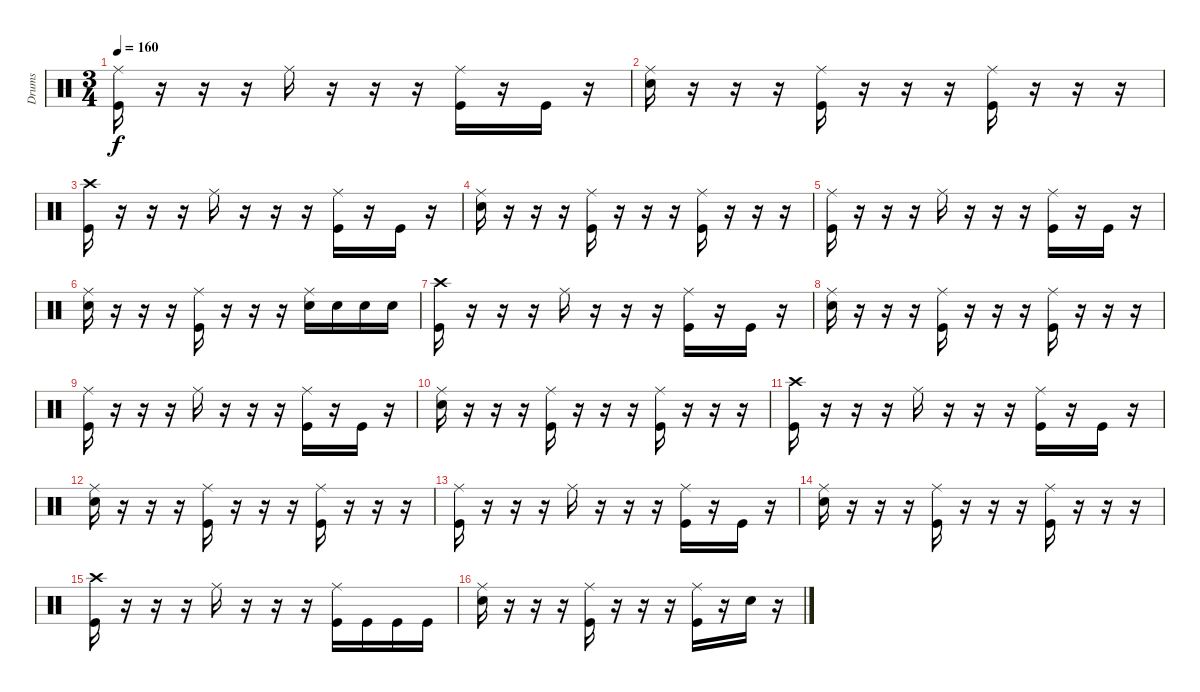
\track ("Drums" "Drums") {instrument percussion}
\staff {score}
\articulation defaults
\ts (3 4)
\tempo 160
\clef neutral
\ks c
("Ride (middle)" "Kick (hit)").16{dy f} r.16 r.16 r.16 "Ride (middle)".16 r.16 r.16 r.16 ("Ride (middle)" "Kick (hit)").16 r.16 "Kick (hit)".16 r.16 |
("Ride (middle)" "Snare (hit) 2").16 r.16 r.16 r.16 ("Ride (middle)" "Kick (hit)").16 r.16 r.16 r.16 ("Ride (middle)" "Kick (hit)").16 r.16 r.16 r.16 |
("Crash high (hit)" "Kick (hit)").16 r.16 r.16 r.16 "Ride (middle)".16 r.16 r.16 r.16 ("Ride (middle)" "Kick (hit)").16 r.16 "Kick (hit)".16 r.16 |
("Ride (middle)" "Snare (hit) 2").16 r.16 r.16 r.16 ("Ride (middle)" "Kick (hit)").16 r.16 r.16 r.16 ("Ride (middle)" "Kick (hit)").16 r.16 r.16 r.16 |
("Ride (middle)" "Kick (hit)").16 r.16 r.16 r.16 "Ride (middle)".16 r.16 r.16 r.16 ("Ride (middle)" "Kick (hit)").16 r.16 "Kick (hit)".16 r.16 |
("Ride (middle)" "Snare (hit) 2").16 r.16 r.16 r.16 ("Ride (middle)" "Kick (hit)").16 r.16 r.16 r.16 ("Ride (middle)" "Snare (hit) 2").16 "Snare (hit) 2".16 "Snare (hit) 2".16 "Snare (hit) 2".16 |
("Crash high (hit)" "Kick (hit)").16 r.16 r.16 r.16 "Ride (middle)".16 r.16 r.16 r.16 ("Ride (middle)" "Kick (hit)").16 r.16 "Kick (hit)".16 r.16 |
("Ride (middle)" "Snare (hit) 2").16 r.16 r.16 r.16 ("Ride (middle)" "Kick (hit)").16 r.16 r.16 r.16 ("Ride (middle)" "Kick (hit)").16 r.16 r.16 r.16 |
("Ride (middle)" "Kick (hit)").16 r.16 r.16 r.16 "Ride (middle)".16 r.16 r.16 r.16 ("Ride (middle)" "Kick (hit)").16 r.16 "Kick (hit)".16 r.16 |
("Ride (middle)" "Snare (hit) 2").16 r.16 r.16 r.16 ("Ride (middle)" "Kick (hit)").16 r.16 r.16 r.16 ("Ride (middle)" "Kick (hit)").16 r.16 r.16 r.16 |
("Crash high (hit)" "Kick (hit)").16 r.16 r.16 r.16 "Ride (middle)".16 r.16 r.16 r.16 ("Ride (middle)" "Kick (hit)").16 r.16 "Kick (hit)".16 r.16 |
("Ride (middle)" "Snare (hit) 2").16 r.16 r.16 r.16 ("Ride (middle)" "Kick (hit)").16 r.16 r.16 r.16 ("Ride (middle)" "Kick (hit)").16 r.16 r.16 r.16 |
("Ride (middle)" "Kick (hit)").16 r.16 r.16 r.16 "Ride (middle)".16 r.16 r.16 r.16 ("Ride (middle)" "Kick (hit)").16 r.16 "Kick (hit)".16 r.16 |
("Ride (middle)" "Snare (hit) 2").16 r.16 r.16 r.16 ("Ride (middle)" "Kick (hit)").16 r.16 r.16 r.16 ("Ride (middle)" "Kick (hit)").16 r.16 r.16 r.16 |
("Crash high (hit)" "Kick (hit)").16 r.16 r.16 r.16 "Ride (middle)".16 r.16 r.16 r.16 ("Ride (middle)" "Kick (hit)").16 "Kick (hit)".16 "Kick (hit)".16 "Kick (hit)".16 |
("Ride (middle)" "Snare (hit) 2").16 r.16 r.16 r.16 ("Ride (middle)" "Kick (hit)").16 r.16 r.16 r.16 ("Ride (middle)" "Kick (hit)").16 r.16 "Snare (hit) 2".16 r.16
